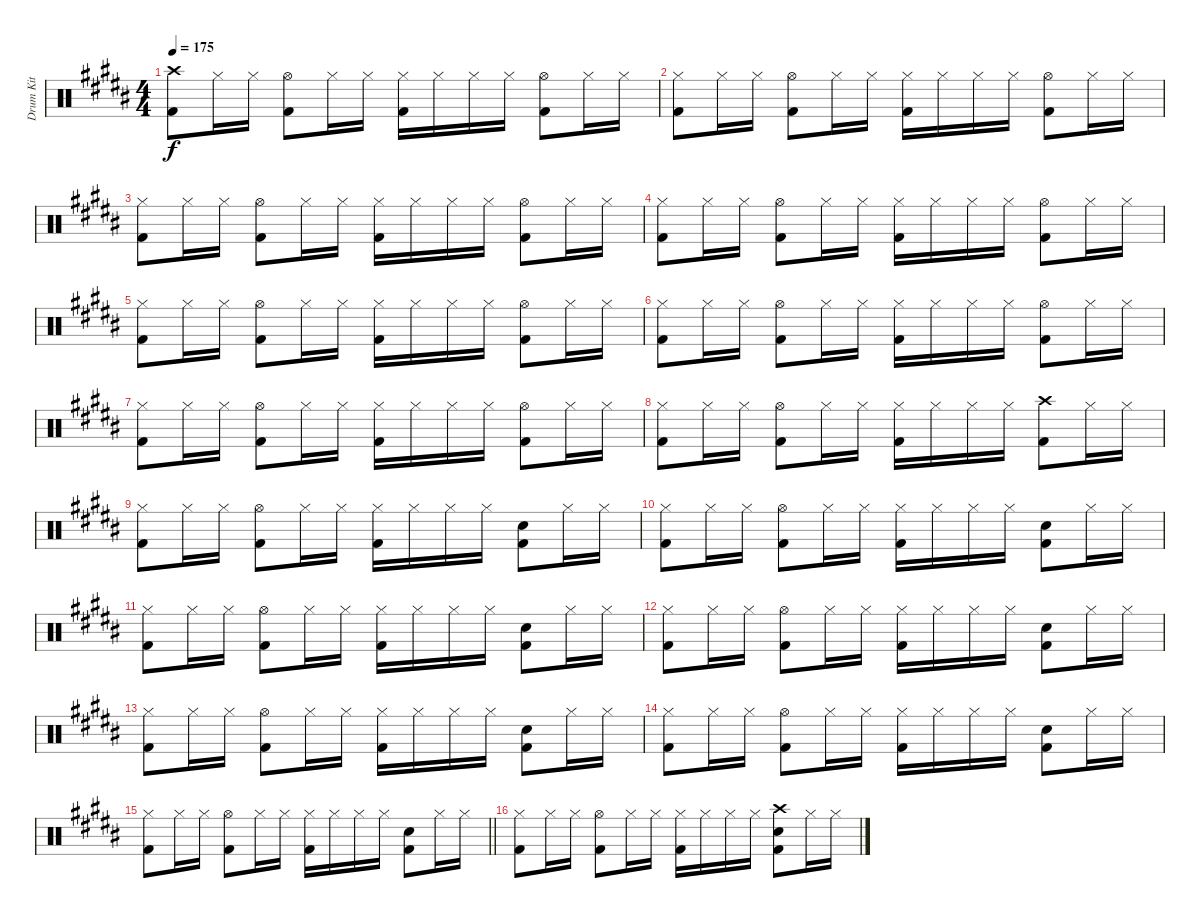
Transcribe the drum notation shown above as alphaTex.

\track ("Drum Kit" "Drum Kit") {instrument percussion}
\staff {score}
\articulation defaults
\ts (4 4)
\tempo 175
\clef neutral
\ks b
("Crash high (hit)" "Kick (hit) 2").8{dy f} "Hi-Hat (closed)".16 "Hi-Hat (closed)".16 ("Hi-Hat (open)" "Kick (hit) 2").8 "Hi-Hat (closed)".16 "Hi-Hat (closed)".16 ("Hi-Hat (closed)" "Kick (hit) 2").16 "Hi-Hat (closed)".16 "Hi-Hat (closed)".16 "Hi-Hat (closed)".16 ("Hi-Hat (open)" "Kick (hit) 2").8 "Hi-Hat (closed)".16 "Hi-Hat (closed)".16 |
\ks g#minor
("Hi-Hat (closed)" "Kick (hit) 2").8 "Hi-Hat (closed)".16 "Hi-Hat (closed)".16 ("Hi-Hat (open)" "Kick (hit) 2").8 "Hi-Hat (closed)".16 "Hi-Hat (closed)".16 ("Hi-Hat (closed)" "Kick (hit) 2").16 "Hi-Hat (closed)".16 "Hi-Hat (closed)".16 "Hi-Hat (closed)".16 ("Hi-Hat (open)" "Kick (hit) 2").8 "Hi-Hat (closed)".16 "Hi-Hat (closed)".16 |
("Hi-Hat (closed)" "Kick (hit) 2").8 "Hi-Hat (closed)".16 "Hi-Hat (closed)".16 ("Hi-Hat (open)" "Kick (hit) 2").8 "Hi-Hat (closed)".16 "Hi-Hat (closed)".16 ("Hi-Hat (closed)" "Kick (hit) 2").16 "Hi-Hat (closed)".16 "Hi-Hat (closed)".16 "Hi-Hat (closed)".16 ("Hi-Hat (open)" "Kick (hit) 2").8 "Hi-Hat (closed)".16 "Hi-Hat (closed)".16 |
\ks b
("Hi-Hat (closed)" "Kick (hit) 2").8 "Hi-Hat (closed)".16 "Hi-Hat (closed)".16 ("Hi-Hat (open)" "Kick (hit) 2").8 "Hi-Hat (closed)".16 "Hi-Hat (closed)".16 ("Hi-Hat (closed)" "Kick (hit) 2").16 "Hi-Hat (closed)".16 "Hi-Hat (closed)".16 "Hi-Hat (closed)".16 ("Hi-Hat (open)" "Kick (hit) 2").8 "Hi-Hat (closed)".16 "Hi-Hat (closed)".16 |
\ks g#minor
("Hi-Hat (closed)" "Kick (hit) 2").8 "Hi-Hat (closed)".16 "Hi-Hat (closed)".16 ("Hi-Hat (open)" "Kick (hit) 2").8 "Hi-Hat (closed)".16 "Hi-Hat (closed)".16 ("Hi-Hat (closed)" "Kick (hit) 2").16 "Hi-Hat (closed)".16 "Hi-Hat (closed)".16 "Hi-Hat (closed)".16 ("Hi-Hat (open)" "Kick (hit) 2").8 "Hi-Hat (closed)".16 "Hi-Hat (closed)".16 |
("Hi-Hat (closed)" "Kick (hit) 2").8 "Hi-Hat (closed)".16 "Hi-Hat (closed)".16 ("Hi-Hat (open)" "Kick (hit) 2").8 "Hi-Hat (closed)".16 "Hi-Hat (closed)".16 ("Hi-Hat (closed)" "Kick (hit) 2").16 "Hi-Hat (closed)".16 "Hi-Hat (closed)".16 "Hi-Hat (closed)".16 ("Hi-Hat (open)" "Kick (hit) 2").8 "Hi-Hat (closed)".16 "Hi-Hat (closed)".16 |
("Hi-Hat (closed)" "Kick (hit) 2").8 "Hi-Hat (closed)".16 "Hi-Hat (closed)".16 ("Hi-Hat (open)" "Kick (hit) 2").8 "Hi-Hat (closed)".16 "Hi-Hat (closed)".16 ("Hi-Hat (closed)" "Kick (hit) 2").16 "Hi-Hat (closed)".16 "Hi-Hat (closed)".16 "Hi-Hat (closed)".16 ("Hi-Hat (open)" "Kick (hit) 2").8 "Hi-Hat (closed)".16 "Hi-Hat (closed)".16 |
\ks b
("Hi-Hat (closed)" "Kick (hit) 2").8 "Hi-Hat (closed)".16 "Hi-Hat (closed)".16 ("Hi-Hat (open)" "Kick (hit) 2").8 "Hi-Hat (closed)".16 "Hi-Hat (closed)".16 ("Hi-Hat (closed)" "Kick (hit) 2").16 "Hi-Hat (closed)".16 "Hi-Hat (closed)".16 "Hi-Hat (closed)".16 ("Crash high (hit)" "Kick (hit) 2").8 "Hi-Hat (closed)".16 "Hi-Hat (closed)".16 |
\ks g#minor
("Hi-Hat (closed)" "Kick (hit) 2").8 "Hi-Hat (closed)".16 "Hi-Hat (closed)".16 ("Hi-Hat (open)" "Kick (hit) 2").8 "Hi-Hat (closed)".16 "Hi-Hat (closed)".16 ("Hi-Hat (closed)" "Kick (hit) 2").16 "Hi-Hat (closed)".16 "Hi-Hat (closed)".16 "Hi-Hat (closed)".16 ("Snare (hit) 2" "Kick (hit) 2").8 "Hi-Hat (closed)".16 "Hi-Hat (closed)".16 |
("Hi-Hat (closed)" "Kick (hit) 2").8 "Hi-Hat (closed)".16 "Hi-Hat (closed)".16 ("Hi-Hat (open)" "Kick (hit) 2").8 "Hi-Hat (closed)".16 "Hi-Hat (closed)".16 ("Hi-Hat (closed)" "Kick (hit) 2").16 "Hi-Hat (closed)".16 "Hi-Hat (closed)".16 "Hi-Hat (closed)".16 ("Snare (hit) 2" "Kick (hit) 2").8 "Hi-Hat (closed)".16 "Hi-Hat (closed)".16 |
("Hi-Hat (closed)" "Kick (hit) 2").8 "Hi-Hat (closed)".16 "Hi-Hat (closed)".16 ("Hi-Hat (open)" "Kick (hit) 2").8 "Hi-Hat (closed)".16 "Hi-Hat (closed)".16 ("Hi-Hat (closed)" "Kick (hit) 2").16 "Hi-Hat (closed)".16 "Hi-Hat (closed)".16 "Hi-Hat (closed)".16 ("Snare (hit) 2" "Kick (hit) 2").8 "Hi-Hat (closed)".16 "Hi-Hat (closed)".16 |
\ks b
("Hi-Hat (closed)" "Kick (hit) 2").8 "Hi-Hat (closed)".16 "Hi-Hat (closed)".16 ("Hi-Hat (open)" "Kick (hit) 2").8 "Hi-Hat (closed)".16 "Hi-Hat (closed)".16 ("Hi-Hat (closed)" "Kick (hit) 2").16 "Hi-Hat (closed)".16 "Hi-Hat (closed)".16 "Hi-Hat (closed)".16 ("Snare (hit) 2" "Kick (hit) 2").8 "Hi-Hat (closed)".16 "Hi-Hat (closed)".16 |
\ks g#minor
("Hi-Hat (closed)" "Kick (hit) 2").8 "Hi-Hat (closed)".16 "Hi-Hat (closed)".16 ("Hi-Hat (open)" "Kick (hit) 2").8 "Hi-Hat (closed)".16 "Hi-Hat (closed)".16 ("Hi-Hat (closed)" "Kick (hit) 2").16 "Hi-Hat (closed)".16 "Hi-Hat (closed)".16 "Hi-Hat (closed)".16 ("Snare (hit) 2" "Kick (hit) 2").8 "Hi-Hat (closed)".16 "Hi-Hat (closed)".16 |
("Hi-Hat (closed)" "Kick (hit) 2").8 "Hi-Hat (closed)".16 "Hi-Hat (closed)".16 ("Hi-Hat (open)" "Kick (hit) 2").8 "Hi-Hat (closed)".16 "Hi-Hat (closed)".16 ("Hi-Hat (closed)" "Kick (hit) 2").16 "Hi-Hat (closed)".16 "Hi-Hat (closed)".16 "Hi-Hat (closed)".16 ("Snare (hit) 2" "Kick (hit) 2").8 "Hi-Hat (closed)".16 "Hi-Hat (closed)".16 |
\barLineRight lightlight
("Hi-Hat (closed)" "Kick (hit) 2").8 "Hi-Hat (closed)".16 "Hi-Hat (closed)".16 ("Hi-Hat (open)" "Kick (hit) 2").8 "Hi-Hat (closed)".16 "Hi-Hat (closed)".16 ("Hi-Hat (closed)" "Kick (hit) 2").16 "Hi-Hat (closed)".16 "Hi-Hat (closed)".16 "Hi-Hat (closed)".16 ("Snare (hit) 2" "Kick (hit) 2").8 "Hi-Hat (closed)".16 "Hi-Hat (closed)".16 |
\ks b
("Hi-Hat (closed)" "Kick (hit) 2").8 "Hi-Hat (closed)".16 "Hi-Hat (closed)".16 ("Hi-Hat (open)" "Kick (hit) 2").8 "Hi-Hat (closed)".16 "Hi-Hat (closed)".16 ("Hi-Hat (closed)" "Kick (hit) 2").16 "Hi-Hat (closed)".16 "Hi-Hat (closed)".16 "Hi-Hat (closed)".16 ("Crash high (hit)" "Snare (hit) 2" "Kick (hit) 2").8 "Hi-Hat (closed)".16 "Hi-Hat (closed)".16
